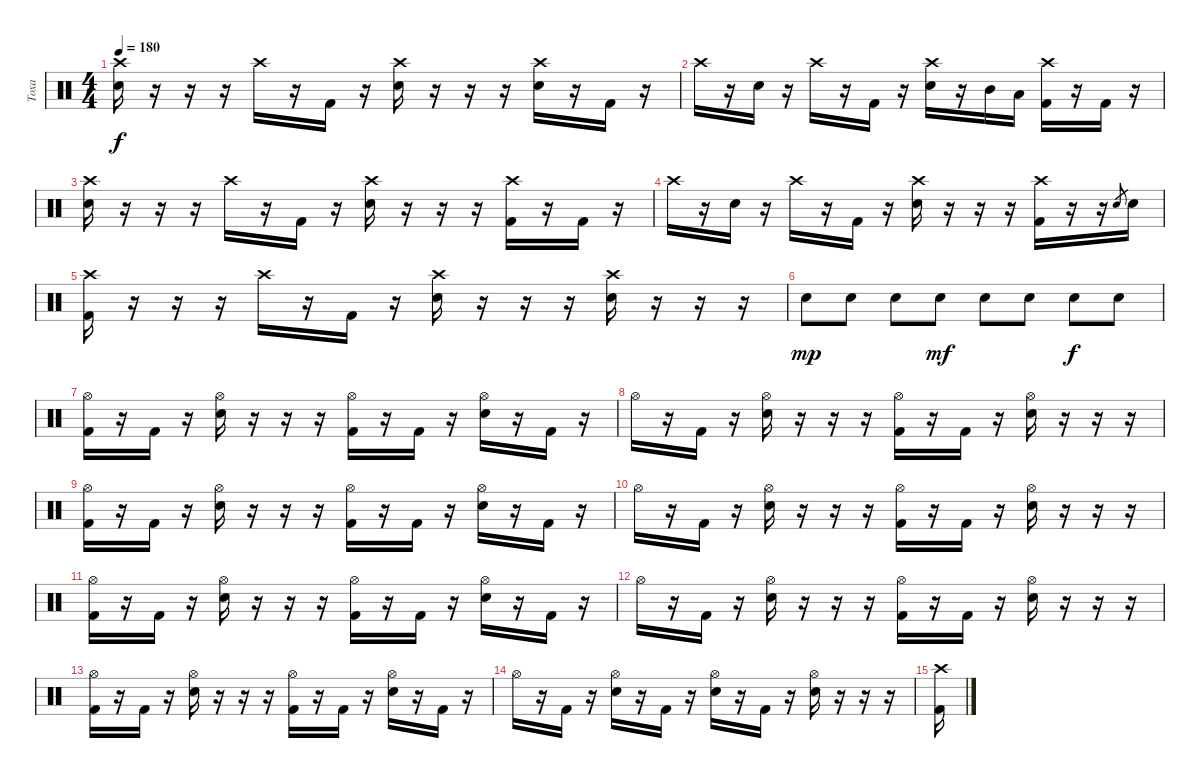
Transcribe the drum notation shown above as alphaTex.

\track ("Тоха" "Тоха") {instrument percussion}
\staff {score}
\articulation defaults
\ts (4 4)
\tempo 180
\clef neutral
\ks c
("Crash high (hit)" "Electric Snare (hit)").16{dy f} r.16 r.16 r.16 "Crash high (hit)".16 r.16 "Kick (hit) 2".16 r.16 ("Crash high (hit)" "Electric Snare (hit)").16 r.16 r.16 r.16 ("Crash high (hit)" "Electric Snare (hit)").16 r.16 "Kick (hit) 2".16 r.16 |
"Crash high (hit)".16 r.16 "Electric Snare (hit)".16 r.16 "Crash high (hit)".16 r.16 "Kick (hit) 2".16 r.16 ("Crash high (hit)" "Electric Snare (hit)").16 r.16 "Mid Tom (hit)".16 "Low Tom (hit)".16 ("Crash high (hit)" "Kick (hit) 2").16 r.16 "Kick (hit) 2".16 r.16 |
("Crash high (hit)" "Electric Snare (hit)").16 r.16 r.16 r.16 "Crash high (hit)".16 r.16 "Kick (hit) 2".16 r.16 ("Crash high (hit)" "Electric Snare (hit)").16 r.16 r.16 r.16 ("Crash high (hit)" "Kick (hit) 2").16 r.16 "Kick (hit) 2".16 r.16 |
"Crash high (hit)".16 r.16 "Electric Snare (hit)".16 r.16 "Crash high (hit)".16 r.16 "Kick (hit) 2".16 r.16 ("Crash high (hit)" "Electric Snare (hit)").16 r.16 r.16 r.16 ("Crash high (hit)" "Kick (hit) 2").16 r.16 r.16 "Electric Snare (hit)".8{gr} "Electric Snare (hit)".16 |
("Crash high (hit)" "Kick (hit) 2").16 r.16 r.16 r.16 "Crash high (hit)".16 r.16 "Kick (hit) 2".16 r.16 ("Crash high (hit)" "Electric Snare (hit)").16 r.16 r.16 r.16 ("Crash high (hit)" "Electric Snare (hit)").16 r.16 r.16 r.16 |
"Electric Snare (hit)".8{dy mp} "Electric Snare (hit)".8 "Electric Snare (hit)".8 "Electric Snare (hit)".8{dy mf} "Electric Snare (hit)".8 "Electric Snare (hit)".8 "Electric Snare (hit)".8{dy f} "Electric Snare (hit)".8 |
("Hi-Hat (open)" "Kick (hit) 2").16 r.16 "Kick (hit) 2".16 r.16 ("Hi-Hat (open)" "Electric Snare (hit)").16 r.16 r.16 r.16 ("Hi-Hat (open)" "Kick (hit) 2").16 r.16 "Kick (hit) 2".16 r.16 ("Hi-Hat (open)" "Electric Snare (hit)").16 r.16 "Kick (hit) 2".16 r.16 |
"Hi-Hat (open)".16 r.16 "Kick (hit) 2".16 r.16 ("Hi-Hat (open)" "Electric Snare (hit)").16 r.16 r.16 r.16 ("Hi-Hat (open)" "Kick (hit) 2").16 r.16 "Kick (hit) 2".16 r.16 ("Hi-Hat (open)" "Electric Snare (hit)").16 r.16 r.16 r.16 |
("Hi-Hat (open)" "Kick (hit) 2").16 r.16 "Kick (hit) 2".16 r.16 ("Hi-Hat (open)" "Electric Snare (hit)").16 r.16 r.16 r.16 ("Hi-Hat (open)" "Kick (hit) 2").16 r.16 "Kick (hit) 2".16 r.16 ("Hi-Hat (open)" "Electric Snare (hit)").16 r.16 "Kick (hit) 2".16 r.16 |
"Hi-Hat (open)".16 r.16 "Kick (hit) 2".16 r.16 ("Hi-Hat (open)" "Electric Snare (hit)").16 r.16 r.16 r.16 ("Hi-Hat (open)" "Kick (hit) 2").16 r.16 "Kick (hit) 2".16 r.16 ("Hi-Hat (open)" "Electric Snare (hit)").16 r.16 r.16 r.16 |
("Hi-Hat (open)" "Kick (hit) 2").16 r.16 "Kick (hit) 2".16 r.16 ("Hi-Hat (open)" "Electric Snare (hit)").16 r.16 r.16 r.16 ("Hi-Hat (open)" "Kick (hit) 2").16 r.16 "Kick (hit) 2".16 r.16 ("Hi-Hat (open)" "Electric Snare (hit)").16 r.16 "Kick (hit) 2".16 r.16 |
"Hi-Hat (open)".16 r.16 "Kick (hit) 2".16 r.16 ("Hi-Hat (open)" "Electric Snare (hit)").16 r.16 r.16 r.16 ("Hi-Hat (open)" "Kick (hit) 2").16 r.16 "Kick (hit) 2".16 r.16 ("Hi-Hat (open)" "Electric Snare (hit)").16 r.16 r.16 r.16 |
("Hi-Hat (open)" "Kick (hit) 2").16 r.16 "Kick (hit) 2".16 r.16 ("Hi-Hat (open)" "Electric Snare (hit)").16 r.16 r.16 r.16 ("Hi-Hat (open)" "Kick (hit) 2").16 r.16 "Kick (hit) 2".16 r.16 ("Hi-Hat (open)" "Electric Snare (hit)").16 r.16 "Kick (hit) 2".16 r.16 |
"Hi-Hat (open)".16 r.16 "Kick (hit) 2".16 r.16 ("Hi-Hat (open)" "Electric Snare (hit)").16 r.16 "Kick (hit) 2".16 r.16 ("Hi-Hat (open)" "Electric Snare (hit)").16 r.16 "Kick (hit) 2".16 r.16 ("Hi-Hat (open)" "Electric Snare (hit)").16 r.16 r.16 r.16 |
("Crash high (hit)" "Kick (hit) 2").16
